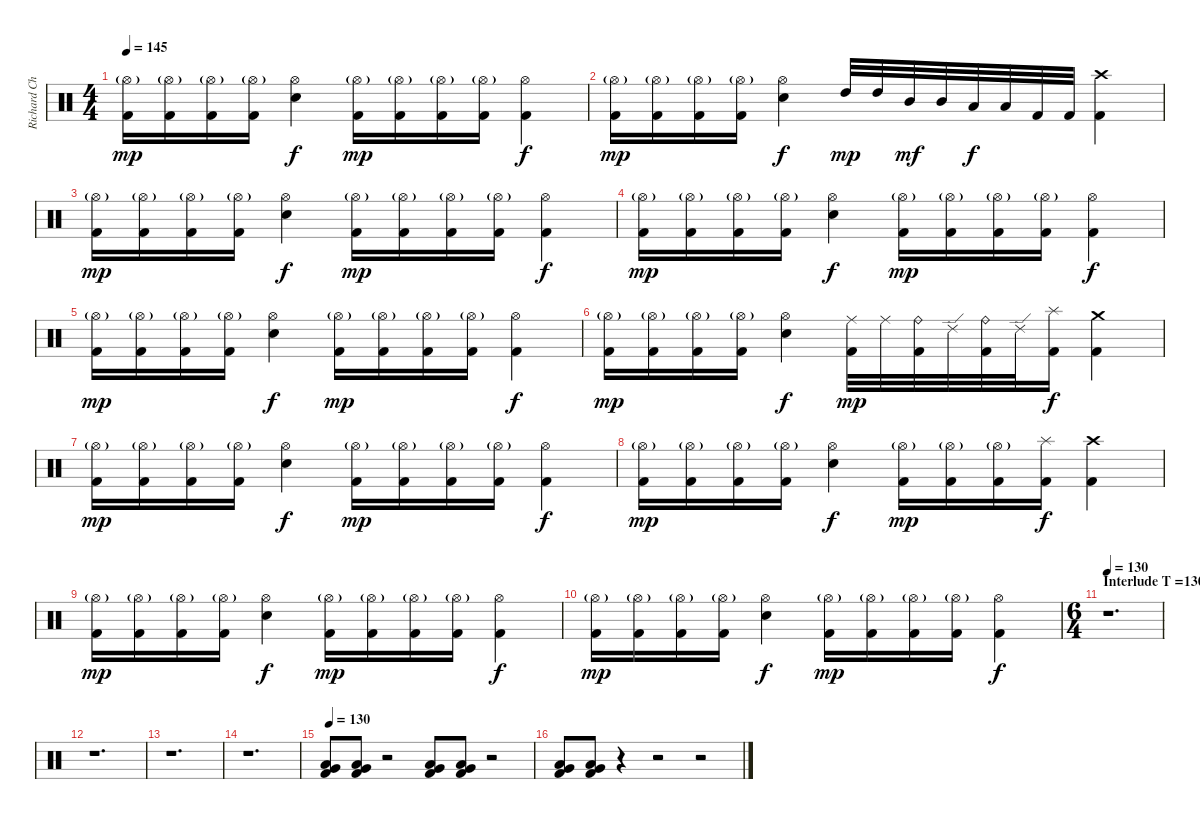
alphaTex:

\track ("Richard Christy" "Richard Ch") {instrument percussion}
\staff {score}
\articulation defaults
\ts (4 4)
\tempo 145
\clef neutral
\ks c
("Hi-Hat (open)"{g} "Kick (hit) 2").16{dy mp} ("Hi-Hat (open)"{g} "Kick (hit) 2").16 ("Hi-Hat (open)"{g} "Kick (hit) 2").16 ("Hi-Hat (open)"{g} "Kick (hit) 2").16 ("Hi-Hat (open)" "Electric Snare (hit)").4{dy f} ("Hi-Hat (open)"{g} "Kick (hit) 2").16{dy mp} ("Hi-Hat (open)"{g} "Kick (hit) 2").16 ("Hi-Hat (open)"{g} "Kick (hit) 2").16 ("Hi-Hat (open)"{g} "Kick (hit) 2").16 ("Hi-Hat (open)" "Kick (hit) 2").4{dy f} |
("Hi-Hat (open)"{g} "Kick (hit) 2").16{dy mp} ("Hi-Hat (open)"{g} "Kick (hit) 2").16 ("Hi-Hat (open)"{g} "Kick (hit) 2").16 ("Hi-Hat (open)"{g} "Kick (hit) 2").16 ("Hi-Hat (open)" "Electric Snare (hit)").4{dy f} "High Tom (hit)".32{dy mp} "High Tom (hit)".32 "Mid Tom (hit)".32{dy mf} "Mid Tom (hit)".32 "Low Tom (hit)".32{dy f} "Low Tom (hit)".32 "Kick (hit) 2".32 "Kick (hit) 2".32 ("Crash high (hit)" "Kick (hit) 2").4 |
("Hi-Hat (open)"{g} "Kick (hit) 2").16{dy mp} ("Hi-Hat (open)"{g} "Kick (hit) 2").16 ("Hi-Hat (open)"{g} "Kick (hit) 2").16 ("Hi-Hat (open)"{g} "Kick (hit) 2").16 ("Hi-Hat (open)" "Electric Snare (hit)").4{dy f} ("Hi-Hat (open)"{g} "Kick (hit) 2").16{dy mp} ("Hi-Hat (open)"{g} "Kick (hit) 2").16 ("Hi-Hat (open)"{g} "Kick (hit) 2").16 ("Hi-Hat (open)"{g} "Kick (hit) 2").16 ("Hi-Hat (open)" "Kick (hit) 2").4{dy f} |
("Hi-Hat (open)"{g} "Kick (hit) 2").16{dy mp} ("Hi-Hat (open)"{g} "Kick (hit) 2").16 ("Hi-Hat (open)"{g} "Kick (hit) 2").16 ("Hi-Hat (open)"{g} "Kick (hit) 2").16 ("Hi-Hat (open)" "Electric Snare (hit)").4{dy f} ("Hi-Hat (open)"{g} "Kick (hit) 2").16{dy mp} ("Hi-Hat (open)"{g} "Kick (hit) 2").16 ("Hi-Hat (open)"{g} "Kick (hit) 2").16 ("Hi-Hat (open)"{g} "Kick (hit) 2").16 ("Hi-Hat (open)" "Kick (hit) 2").4{dy f} |
("Hi-Hat (open)"{g} "Kick (hit) 2").16{dy mp} ("Hi-Hat (open)"{g} "Kick (hit) 2").16 ("Hi-Hat (open)"{g} "Kick (hit) 2").16 ("Hi-Hat (open)"{g} "Kick (hit) 2").16 ("Hi-Hat (open)" "Electric Snare (hit)").4{dy f} ("Hi-Hat (open)"{g} "Kick (hit) 2").16{dy mp} ("Hi-Hat (open)"{g} "Kick (hit) 2").16 ("Hi-Hat (open)"{g} "Kick (hit) 2").16 ("Hi-Hat (open)"{g} "Kick (hit) 2").16 ("Hi-Hat (open)" "Kick (hit) 2").4{dy f} |
("Hi-Hat (open)"{g} "Kick (hit) 2").16{dy mp} ("Hi-Hat (open)"{g} "Kick (hit) 2").16 ("Hi-Hat (open)"{g} "Kick (hit) 2").16 ("Hi-Hat (open)"{g} "Kick (hit) 2").16 ("Hi-Hat (open)" "Electric Snare (hit)").4{dy f} ("Ride (middle)" "Kick (hit) 2").32{dy mp} "Ride (middle)".32 ("Ride (bell)" "Kick (hit) 2").32 "Ride (edge) 2".32 ("Ride (bell)" "Kick (hit) 2").32 "Ride (edge) 2".32 ("Splash (hit)" "Kick (hit) 2").16{dy f} ("Crash medium (hit)" "Kick (hit) 2").4 |
("Hi-Hat (open)"{g} "Kick (hit) 2").16{dy mp} ("Hi-Hat (open)"{g} "Kick (hit) 2").16 ("Hi-Hat (open)"{g} "Kick (hit) 2").16 ("Hi-Hat (open)"{g} "Kick (hit) 2").16 ("Hi-Hat (open)" "Electric Snare (hit)").4{dy f} ("Hi-Hat (open)"{g} "Kick (hit) 2").16{dy mp} ("Hi-Hat (open)"{g} "Kick (hit) 2").16 ("Hi-Hat (open)"{g} "Kick (hit) 2").16 ("Hi-Hat (open)"{g} "Kick (hit) 2").16 ("Hi-Hat (open)" "Kick (hit) 2").4{dy f} |
("Hi-Hat (open)"{g} "Kick (hit) 2").16{dy mp} ("Hi-Hat (open)"{g} "Kick (hit) 2").16 ("Hi-Hat (open)"{g} "Kick (hit) 2").16 ("Hi-Hat (open)"{g} "Kick (hit) 2").16 ("Hi-Hat (open)" "Electric Snare (hit)").4{dy f} ("Hi-Hat (open)"{g} "Kick (hit) 2").16{dy mp} ("Hi-Hat (open)"{g} "Kick (hit) 2").16 ("Hi-Hat (open)"{g} "Kick (hit) 2").16 ("Splash (hit)" "Kick (hit) 2").16{dy f} ("Crash high (hit)" "Kick (hit) 2").4 |
("Hi-Hat (open)"{g} "Kick (hit) 2").16{dy mp} ("Hi-Hat (open)"{g} "Kick (hit) 2").16 ("Hi-Hat (open)"{g} "Kick (hit) 2").16 ("Hi-Hat (open)"{g} "Kick (hit) 2").16 ("Hi-Hat (open)" "Electric Snare (hit)").4{dy f} ("Hi-Hat (open)"{g} "Kick (hit) 2").16{dy mp} ("Hi-Hat (open)"{g} "Kick (hit) 2").16 ("Hi-Hat (open)"{g} "Kick (hit) 2").16 ("Hi-Hat (open)"{g} "Kick (hit) 2").16 ("Hi-Hat (open)" "Kick (hit) 2").4{dy f} |
("Hi-Hat (open)"{g} "Kick (hit) 2").16{dy mp} ("Hi-Hat (open)"{g} "Kick (hit) 2").16 ("Hi-Hat (open)"{g} "Kick (hit) 2").16 ("Hi-Hat (open)"{g} "Kick (hit) 2").16 ("Hi-Hat (open)" "Electric Snare (hit)").4{dy f} ("Hi-Hat (open)"{g} "Kick (hit) 2").16{dy mp} ("Hi-Hat (open)"{g} "Kick (hit) 2").16 ("Hi-Hat (open)"{g} "Kick (hit) 2").16 ("Hi-Hat (open)"{g} "Kick (hit) 2").16 ("Hi-Hat (open)" "Kick (hit) 2").4{dy f} |
\ts (6 4)
\section ("" "Interlude T =130 ")
\tempo 130
r.1{d} |
r.1{d} |
r.1{d} |
r.1{d} |
\tempo 130
("Low Tom (hit)" "Very Low Tom (hit)" "Kick (hit) 2").8 ("Low Floor Tom (hit)" "Very Low Tom (hit)" "Kick (hit) 2").8 r.2 ("Low Tom (hit)" "Very Low Tom (hit)" "Kick (hit) 2").8 ("Low Floor Tom (hit)" "Very Low Tom (hit)" "Kick (hit) 2").8 r.2 |
("Low Tom (hit)" "Very Low Tom (hit)" "Kick (hit) 2").8 ("Low Floor Tom (hit)" "Very Low Tom (hit)" "Kick (hit) 2").8 r.4 r.2 r.2
